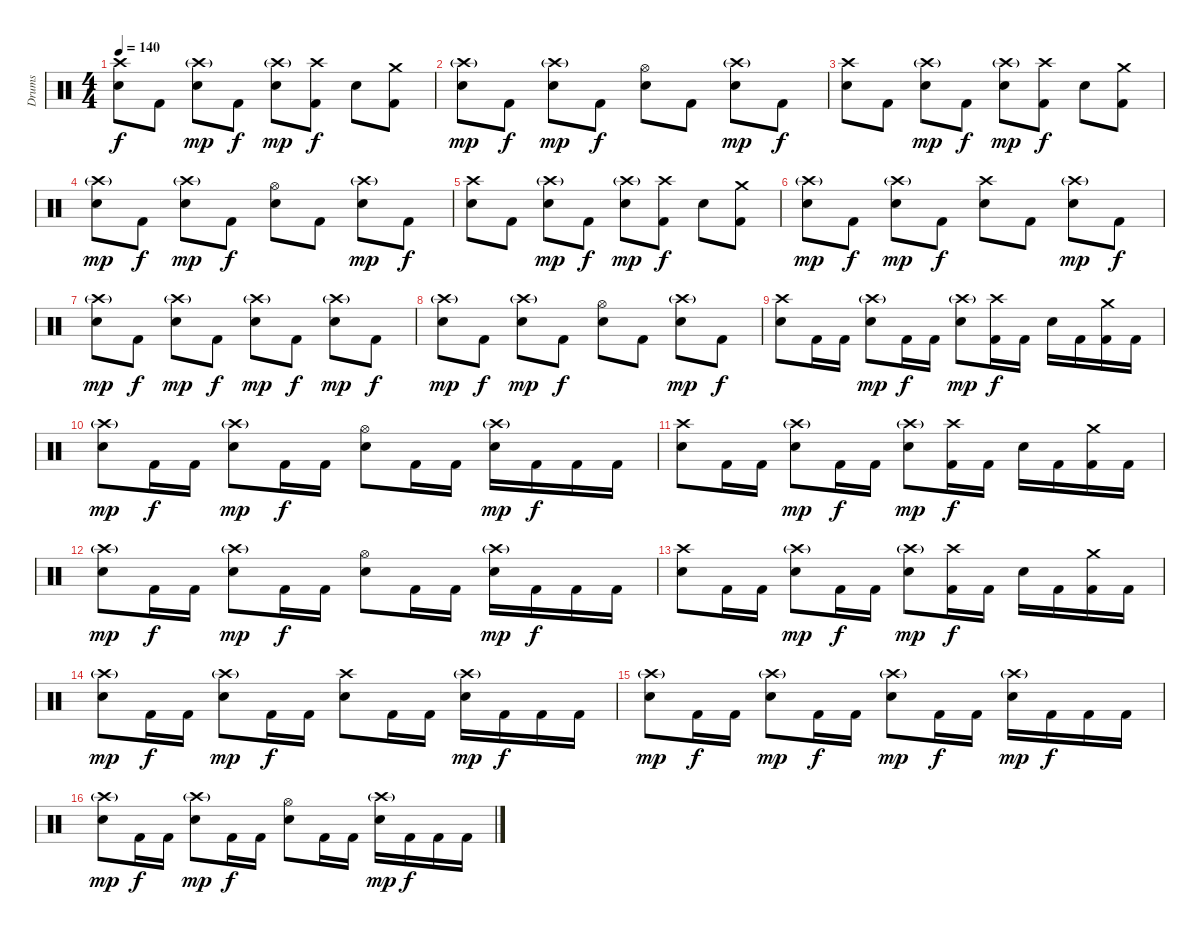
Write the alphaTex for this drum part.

\track ("Drums" "Drums") {instrument percussion}
\staff {score}
\articulation defaults
\ts (4 4)
\tempo 140
\clef neutral
\ks c
("Electric Snare (hit)" "Crash high (hit)").8{dy f} "Kick (hit) 2".8 ("Electric Snare (hit)" "Crash high (hit)"{g}).8{dy mp} "Kick (hit) 2".8{dy f} ("Electric Snare (hit)" "Crash high (hit)"{g}).8{dy mp} ("Kick (hit) 2" "Crash high (hit)").8{dy f} "Electric Snare (hit)".8 ("Kick (hit) 2" "Crash medium (hit)").8 |
("Electric Snare (hit)" "Crash high (hit)"{g}).8{dy mp} "Kick (hit) 2".8{dy f} ("Electric Snare (hit)" "Crash high (hit)"{g}).8{dy mp} "Kick (hit) 2".8{dy f} ("Electric Snare (hit)" "Hi-Hat (open)").8 "Kick (hit) 2".8 ("Electric Snare (hit)" "Crash high (hit)"{g}).8{dy mp} "Kick (hit) 2".8{dy f} |
("Electric Snare (hit)" "Crash high (hit)").8 "Kick (hit) 2".8 ("Electric Snare (hit)" "Crash high (hit)"{g}).8{dy mp} "Kick (hit) 2".8{dy f} ("Electric Snare (hit)" "Crash high (hit)"{g}).8{dy mp} ("Kick (hit) 2" "Crash high (hit)").8{dy f} "Electric Snare (hit)".8 ("Kick (hit) 2" "Crash medium (hit)").8 |
("Electric Snare (hit)" "Crash high (hit)"{g}).8{dy mp} "Kick (hit) 2".8{dy f} ("Electric Snare (hit)" "Crash high (hit)"{g}).8{dy mp} "Kick (hit) 2".8{dy f} ("Electric Snare (hit)" "Hi-Hat (open)").8 "Kick (hit) 2".8 ("Electric Snare (hit)" "Crash high (hit)"{g}).8{dy mp} "Kick (hit) 2".8{dy f} |
("Electric Snare (hit)" "Crash high (hit)").8 "Kick (hit) 2".8 ("Electric Snare (hit)" "Crash high (hit)"{g}).8{dy mp} "Kick (hit) 2".8{dy f} ("Electric Snare (hit)" "Crash high (hit)"{g}).8{dy mp} ("Kick (hit) 2" "Crash high (hit)").8{dy f} "Electric Snare (hit)".8 ("Kick (hit) 2" "Crash medium (hit)").8 |
("Electric Snare (hit)" "Crash high (hit)"{g}).8{dy mp} "Kick (hit) 2".8{dy f} ("Electric Snare (hit)" "Crash high (hit)"{g}).8{dy mp} "Kick (hit) 2".8{dy f} ("Electric Snare (hit)" "Crash high (hit)").8 "Kick (hit) 2".8 ("Electric Snare (hit)" "Crash high (hit)"{g}).8{dy mp} "Kick (hit) 2".8{dy f} |
("Electric Snare (hit)" "Crash high (hit)"{g}).8{dy mp} "Kick (hit) 2".8{dy f} ("Electric Snare (hit)" "Crash high (hit)"{g}).8{dy mp} "Kick (hit) 2".8{dy f} ("Electric Snare (hit)" "Crash high (hit)"{g}).8{dy mp} "Kick (hit) 2".8{dy f} ("Electric Snare (hit)" "Crash high (hit)"{g}).8{dy mp} "Kick (hit) 2".8{dy f} |
("Electric Snare (hit)" "Crash high (hit)"{g}).8{dy mp} "Kick (hit) 2".8{dy f} ("Electric Snare (hit)" "Crash high (hit)"{g}).8{dy mp} "Kick (hit) 2".8{dy f} ("Electric Snare (hit)" "Hi-Hat (open)").8 "Kick (hit) 2".8 ("Electric Snare (hit)" "Crash high (hit)"{g}).8{dy mp} "Kick (hit) 2".8{dy f} |
("Electric Snare (hit)" "Crash high (hit)").8 "Kick (hit) 2".16 "Kick (hit) 2".16 ("Electric Snare (hit)" "Crash high (hit)"{g}).8{dy mp} "Kick (hit) 2".16{dy f} "Kick (hit) 2".16 ("Electric Snare (hit)" "Crash high (hit)"{g}).8{dy mp} ("Kick (hit) 2" "Crash high (hit)").16{dy f} "Kick (hit) 2".16 "Electric Snare (hit)".16 "Kick (hit) 2".16 ("Kick (hit) 2" "Crash medium (hit)").16 "Kick (hit) 2".16 |
("Electric Snare (hit)" "Crash high (hit)"{g}).8{dy mp} "Kick (hit) 2".16{dy f} "Kick (hit) 2".16 ("Electric Snare (hit)" "Crash high (hit)"{g}).8{dy mp} "Kick (hit) 2".16{dy f} "Kick (hit) 2".16 ("Electric Snare (hit)" "Hi-Hat (open)").8 "Kick (hit) 2".16 "Kick (hit) 2".16 ("Electric Snare (hit)" "Crash high (hit)"{g}).16{dy mp} "Kick (hit) 2".16{dy f} "Kick (hit) 2".16 "Kick (hit) 2".16 |
("Electric Snare (hit)" "Crash high (hit)").8 "Kick (hit) 2".16 "Kick (hit) 2".16 ("Electric Snare (hit)" "Crash high (hit)"{g}).8{dy mp} "Kick (hit) 2".16{dy f} "Kick (hit) 2".16 ("Electric Snare (hit)" "Crash high (hit)"{g}).8{dy mp} ("Kick (hit) 2" "Crash high (hit)").16{dy f} "Kick (hit) 2".16 "Electric Snare (hit)".16 "Kick (hit) 2".16 ("Kick (hit) 2" "Crash medium (hit)").16 "Kick (hit) 2".16 |
("Electric Snare (hit)" "Crash high (hit)"{g}).8{dy mp} "Kick (hit) 2".16{dy f} "Kick (hit) 2".16 ("Electric Snare (hit)" "Crash high (hit)"{g}).8{dy mp} "Kick (hit) 2".16{dy f} "Kick (hit) 2".16 ("Electric Snare (hit)" "Hi-Hat (open)").8 "Kick (hit) 2".16 "Kick (hit) 2".16 ("Electric Snare (hit)" "Crash high (hit)"{g}).16{dy mp} "Kick (hit) 2".16{dy f} "Kick (hit) 2".16 "Kick (hit) 2".16 |
("Electric Snare (hit)" "Crash high (hit)").8 "Kick (hit) 2".16 "Kick (hit) 2".16 ("Electric Snare (hit)" "Crash high (hit)"{g}).8{dy mp} "Kick (hit) 2".16{dy f} "Kick (hit) 2".16 ("Electric Snare (hit)" "Crash high (hit)"{g}).8{dy mp} ("Kick (hit) 2" "Crash high (hit)").16{dy f} "Kick (hit) 2".16 "Electric Snare (hit)".16 "Kick (hit) 2".16 ("Kick (hit) 2" "Crash medium (hit)").16 "Kick (hit) 2".16 |
("Electric Snare (hit)" "Crash high (hit)"{g}).8{dy mp} "Kick (hit) 2".16{dy f} "Kick (hit) 2".16 ("Electric Snare (hit)" "Crash high (hit)"{g}).8{dy mp} "Kick (hit) 2".16{dy f} "Kick (hit) 2".16 ("Electric Snare (hit)" "Crash high (hit)").8 "Kick (hit) 2".16 "Kick (hit) 2".16 ("Electric Snare (hit)" "Crash high (hit)"{g}).16{dy mp} "Kick (hit) 2".16{dy f} "Kick (hit) 2".16 "Kick (hit) 2".16 |
("Electric Snare (hit)" "Crash high (hit)"{g}).8{dy mp} "Kick (hit) 2".16{dy f} "Kick (hit) 2".16 ("Electric Snare (hit)" "Crash high (hit)"{g}).8{dy mp} "Kick (hit) 2".16{dy f} "Kick (hit) 2".16 ("Electric Snare (hit)" "Crash high (hit)"{g}).8{dy mp} "Kick (hit) 2".16{dy f} "Kick (hit) 2".16 ("Electric Snare (hit)" "Crash high (hit)"{g}).16{dy mp} "Kick (hit) 2".16{dy f} "Kick (hit) 2".16 "Kick (hit) 2".16 |
("Electric Snare (hit)" "Crash high (hit)"{g}).8{dy mp} "Kick (hit) 2".16{dy f} "Kick (hit) 2".16 ("Electric Snare (hit)" "Crash high (hit)"{g}).8{dy mp} "Kick (hit) 2".16{dy f} "Kick (hit) 2".16 ("Electric Snare (hit)" "Hi-Hat (open)").8 "Kick (hit) 2".16 "Kick (hit) 2".16 ("Electric Snare (hit)" "Crash high (hit)"{g}).16{dy mp} "Kick (hit) 2".16{dy f} "Kick (hit) 2".16 "Kick (hit) 2".16
